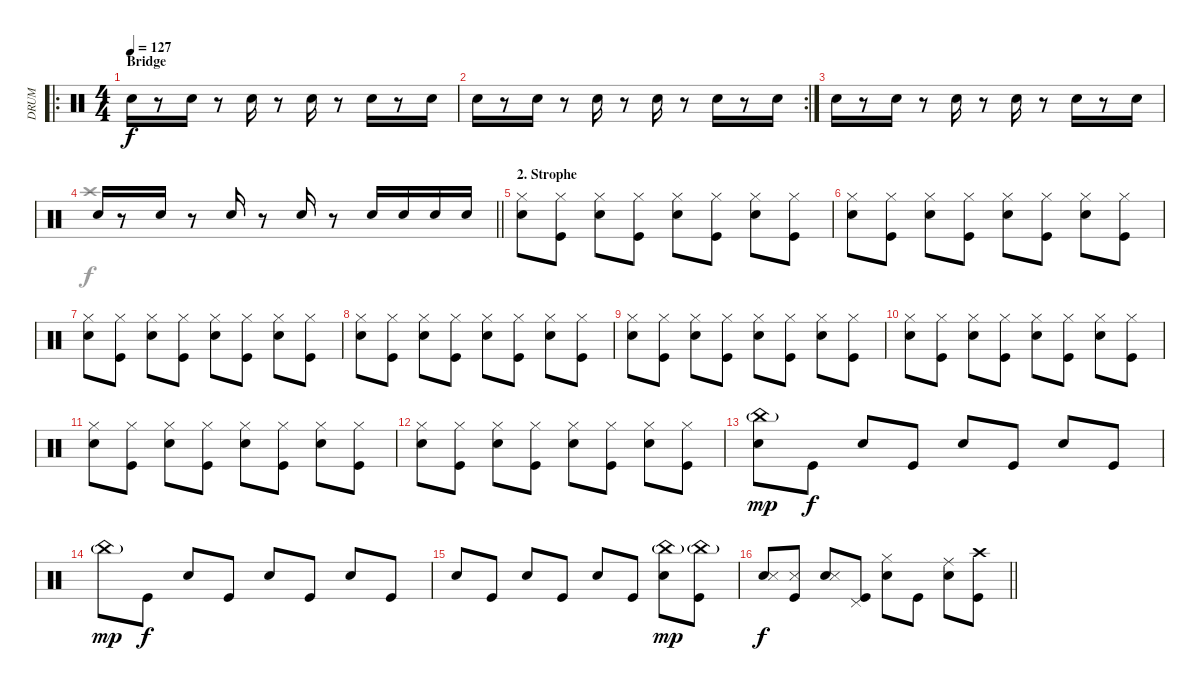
\track ("DRUM" "DRUM") {instrument percussion}
\staff {score}
\articulation defaults
\voice
\ro
\ts (4 4)
\section ("" "Bridge")
\tempo 127
\clef neutral
\ks c "Snare (hit) 2".16{dy f}
r.8 "Snare (hit) 2".16 r.8 "Snare (hit) 2".16 r.8 "Snare (hit) 2".16 r.8 "Snare (hit) 2".16 r.8 "Snare (hit) 2".16 |
\rc 2 "Snare (hit) 2".16
r.8 "Snare (hit) 2".16 r.8 "Snare (hit) 2".16 r.8 "Snare (hit) 2".16 r.8 "Snare (hit) 2".16 r.8 "Snare (hit) 2".16 |
"Snare (hit) 2".16 r.8 "Snare (hit) 2".16 r.8 "Snare (hit) 2".16 r.8 "Snare (hit) 2".16 r.8 "Snare (hit) 2".16 r.8 "Snare (hit) 2".16 |
\barLineRight lightlight "Snare (hit) 2".16
r.8 "Snare (hit) 2".16 r.8 "Snare (hit) 2".16 r.8 "Snare (hit) 2".16 r.8 "Snare (hit) 2".16 "Snare (hit) 2".16 "Snare (hit) 2".16 "Snare (hit) 2".16 |
\section ("" "2. Strophe")
("Snare (hit) 2" "Hi-Hat (closed)").8 ("Kick (hit)" "Hi-Hat (closed)").8 ("Snare (hit) 2" "Hi-Hat (closed)").8 ("Kick (hit)" "Hi-Hat (closed)").8 ("Snare (hit) 2" "Hi-Hat (closed)").8 ("Kick (hit)" "Hi-Hat (closed)").8 ("Snare (hit) 2" "Hi-Hat (closed)").8 ("Kick (hit)" "Hi-Hat (closed)").8 |
("Snare (hit) 2" "Hi-Hat (closed)").8 ("Kick (hit)" "Hi-Hat (closed)").8 ("Snare (hit) 2" "Hi-Hat (closed)").8 ("Kick (hit)" "Hi-Hat (closed)").8 ("Snare (hit) 2" "Hi-Hat (closed)").8 ("Kick (hit)" "Hi-Hat (closed)").8 ("Snare (hit) 2" "Hi-Hat (closed)").8 ("Kick (hit)" "Hi-Hat (closed)").8 |
("Snare (hit) 2" "Hi-Hat (closed)").8 ("Kick (hit)" "Hi-Hat (closed)").8 ("Snare (hit) 2" "Hi-Hat (closed)").8 ("Kick (hit)" "Hi-Hat (closed)").8 ("Snare (hit) 2" "Hi-Hat (closed)").8 ("Kick (hit)" "Hi-Hat (closed)").8 ("Snare (hit) 2" "Hi-Hat (closed)").8 ("Kick (hit)" "Hi-Hat (closed)").8 |
("Snare (hit) 2" "Hi-Hat (closed)").8 ("Kick (hit)" "Hi-Hat (closed)").8 ("Snare (hit) 2" "Hi-Hat (closed)").8 ("Kick (hit)" "Hi-Hat (closed)").8 ("Snare (hit) 2" "Hi-Hat (closed)").8 ("Kick (hit)" "Hi-Hat (closed)").8 ("Snare (hit) 2" "Hi-Hat (closed)").8 ("Kick (hit)" "Hi-Hat (closed)").8 |
("Snare (hit) 2" "Hi-Hat (closed)").8 ("Kick (hit)" "Hi-Hat (closed)").8 ("Snare (hit) 2" "Hi-Hat (closed)").8 ("Kick (hit)" "Hi-Hat (closed)").8 ("Snare (hit) 2" "Hi-Hat (closed)").8 ("Kick (hit)" "Hi-Hat (closed)").8 ("Snare (hit) 2" "Hi-Hat (closed)").8 ("Kick (hit)" "Hi-Hat (closed)").8 |
("Snare (hit) 2" "Hi-Hat (closed)").8 ("Kick (hit)" "Hi-Hat (closed)").8 ("Snare (hit) 2" "Hi-Hat (closed)").8 ("Kick (hit)" "Hi-Hat (closed)").8 ("Snare (hit) 2" "Hi-Hat (closed)").8 ("Kick (hit)" "Hi-Hat (closed)").8 ("Snare (hit) 2" "Hi-Hat (closed)").8 ("Kick (hit)" "Hi-Hat (closed)").8 |
("Snare (hit) 2" "Hi-Hat (closed)").8 ("Kick (hit)" "Hi-Hat (closed)").8 ("Snare (hit) 2" "Hi-Hat (closed)").8 ("Kick (hit)" "Hi-Hat (closed)").8 ("Snare (hit) 2" "Hi-Hat (closed)").8 ("Kick (hit)" "Hi-Hat (closed)").8 ("Snare (hit) 2" "Hi-Hat (closed)").8 ("Kick (hit)" "Hi-Hat (closed)").8 |
("Snare (hit) 2" "Hi-Hat (closed)").8 ("Kick (hit)" "Hi-Hat (closed)").8 ("Snare (hit) 2" "Hi-Hat (closed)").8 ("Kick (hit)" "Hi-Hat (closed)").8 ("Snare (hit) 2" "Hi-Hat (closed)").8 ("Kick (hit)" "Hi-Hat (closed)").8 ("Snare (hit) 2" "Hi-Hat (closed)").8 ("Kick (hit)" "Hi-Hat (closed)").8 |
("Snare (hit) 2" "China (hit)"{g}).8{dy mp} "Kick (hit)".8{dy f} "Snare (hit) 2".8 "Kick (hit)".8 "Snare (hit) 2".8 "Kick (hit)".8 "Snare (hit) 2".8 "Kick (hit)".8 |
"China (hit)"{g}.8{dy mp} "Kick (hit)".8{dy f} "Snare (hit) 2".8 "Kick (hit)".8 "Snare (hit) 2".8 "Kick (hit)".8 "Snare (hit) 2".8 "Kick (hit)".8 |
"Snare (hit) 2".8 "Kick (hit)".8 "Snare (hit) 2".8 "Kick (hit)".8 "Snare (hit) 2".8 "Kick (hit)".8 ("Snare (hit) 2" "China (hit)"{g}).8{dy mp} ("Kick (hit)" "China (hit)"{g}).8 |
\barLineRight lightlight
("Snare (hit) 2" "Snare (side stick) 3").8{dy f} ("Kick (hit)" "Snare (side stick) 3").8 ("Snare (hit) 2" "Snare (side stick) 3").8 ("Kick (hit)" "Pedal Hi-Hat (hit)").8 ("Snare (hit) 2" "Hi-Hat (closed)").8 "Kick (hit)".8 ("Snare (hit) 2" "Ride (middle)").8 ("Kick (hit)" "Crash high (hit)").8
\voice
\clef neutral
\ottava regular
\simile none
\ks c
|
|
|
\barLineRight lightlight "Crash high (hit)".1
|
|
|
|
|
|
|
|
|
|
|
|
\barLineRight lightlight
